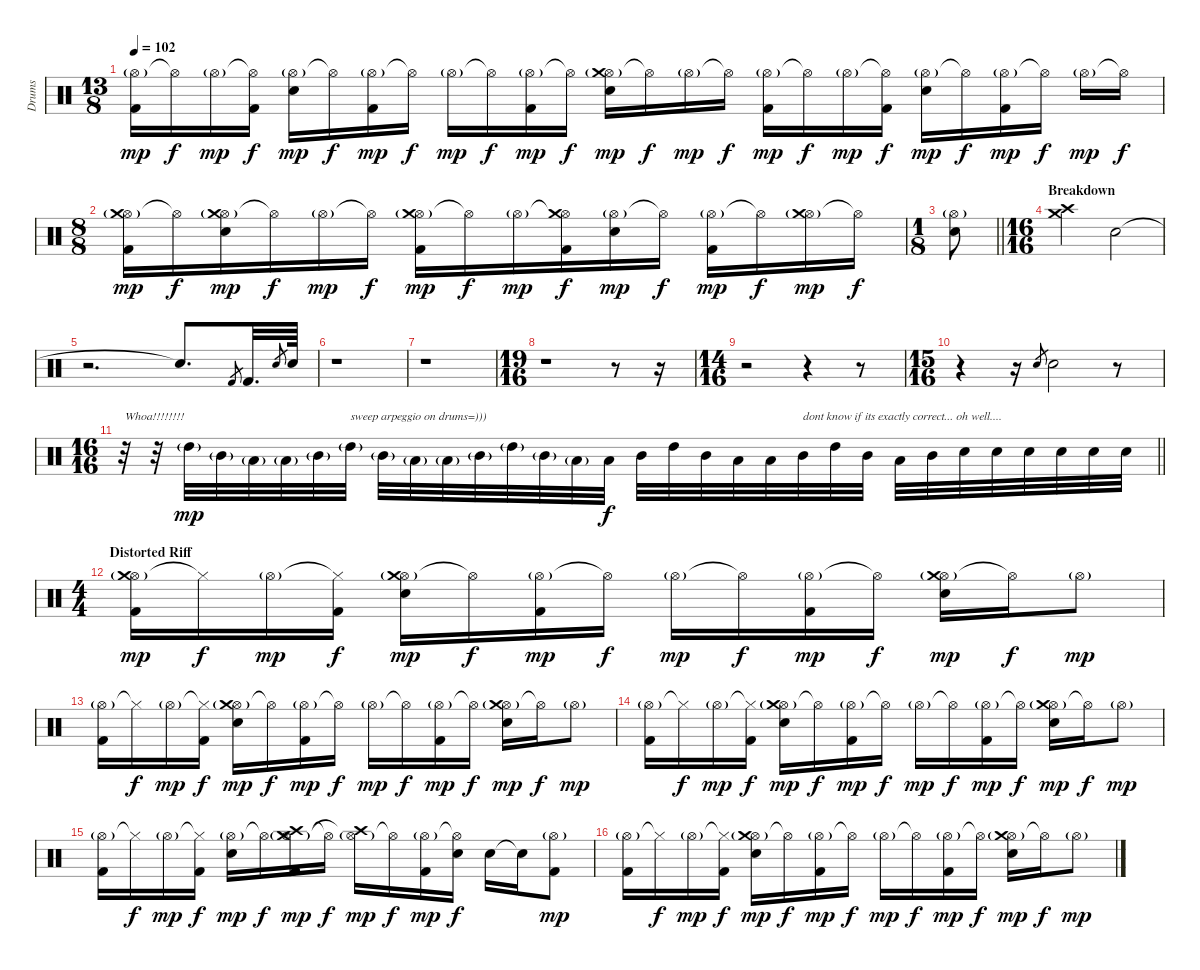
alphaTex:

\track ("Drums" "Drums") {instrument percussion}
\staff {score}
\articulation defaults
\ts (13 8)
\tempo 102
\clef neutral
\ks c
("Hi-Hat (open)"{g} "Kick (hit) 2").16{dy mp} "Hi-Hat (open)"{t}.16{dy f} "Hi-Hat (open)"{g}.16{dy mp} ("Hi-Hat (open)"{t} "Kick (hit) 2").16{dy f} ("Hi-Hat (open)"{g} "Electric Snare (hit)").16{dy mp} "Hi-Hat (open)"{t}.16{dy f} ("Hi-Hat (open)"{g} "Kick (hit) 2").16{dy mp} "Hi-Hat (open)"{t}.16{dy f} "Hi-Hat (open)"{g}.16{dy mp} "Hi-Hat (open)"{t}.16{dy f} ("Hi-Hat (open)"{g} "Kick (hit) 2").16{dy mp} "Hi-Hat (open)"{t}.16{dy f} ("Hi-Hat (open)"{g} "Crash medium (hit)" "Electric Snare (hit)").16{dy mp} "Hi-Hat (open)"{t}.16{dy f} "Hi-Hat (open)"{g}.16{dy mp} "Hi-Hat (open)"{t}.16{dy f} ("Hi-Hat (open)"{g} "Kick (hit) 2").16{dy mp} "Hi-Hat (open)"{t}.16{dy f} "Hi-Hat (open)"{g}.16{dy mp} ("Hi-Hat (open)"{t} "Kick (hit) 2").16{dy f} ("Hi-Hat (open)"{g} "Electric Snare (hit)").16{dy mp} "Hi-Hat (open)"{t}.16{dy f} ("Hi-Hat (open)"{g} "Kick (hit) 2").16{dy mp} "Hi-Hat (open)"{t}.16{dy f} "Hi-Hat (open)"{g}.16{dy mp} "Hi-Hat (open)"{t}.16{dy f} |
\ts (8 8)
("Hi-Hat (open)"{g} "Crash medium (hit)" "Kick (hit) 2").16{dy mp} "Hi-Hat (open)"{t}.16{dy f} ("Hi-Hat (open)"{g} "Electric Snare (hit)" "Crash medium (hit)").16{dy mp} "Hi-Hat (open)"{t}.16{dy f} "Hi-Hat (open)"{g}.16{dy mp} "Hi-Hat (open)"{t}.16{dy f} ("Hi-Hat (open)"{g} "Crash medium (hit)" "Kick (hit) 2").16{dy mp} "Hi-Hat (open)"{t}.16{dy f} "Hi-Hat (open)"{g}.16{dy mp} ("Hi-Hat (open)"{t} "Crash medium (hit)" "Kick (hit) 2").16{dy f} ("Hi-Hat (open)"{g} "Electric Snare (hit)").16{dy mp} "Hi-Hat (open)"{t}.16{dy f} ("Hi-Hat (open)"{g} "Kick (hit) 2").16{dy mp} "Hi-Hat (open)"{t}.16{dy f} ("Hi-Hat (open)"{g} "Crash medium (hit)").16{dy mp} "Hi-Hat (open)"{t}.16{dy f} |
\ts (1 8)
\barLineRight lightlight
("Hi-Hat (open)"{g} "Electric Snare (hit)").8 |
\ts (16 16)
\section ("" "Breakdown")
("Crash high (hit)" "Crash medium (hit)").2 "Electric Snare (hit)".2 |
r.2{d} "Snare (hit)"{t}.8{d} "Kick (hit) 2".8{gr} "Kick (hit) 2".32{d} "Electric Snare (hit)".8{gr} "Electric Snare (hit)".64 |
r.1 |
r.1 |
\ts (19 16)
r.1 r.8 r.16 |
\ts (14 16)
r.2 r.4 r.8 |
\ts (15 16)
r.4 r.16 "Electric Snare (hit)".8{gr} "Electric Snare (hit)".2 r.8 |
\ts (16 16)
\barLineRight lightlight
r.32{txt "Whoa!!!!!!!!"} r.32 "High Tom (hit)"{g}.32{dy mp} "Mid Tom (hit)"{g}.32 "Low Tom (hit)"{g}.32 "Low Tom (hit)"{g}.32 "Mid Tom (hit)"{g}.32 "High Tom (hit)"{g}.32{txt "sweep arpeggio on drums=)))"} "Mid Tom (hit)"{g}.32 "Low Tom (hit)"{g}.32 "Low Tom (hit)"{g}.32 "Mid Tom (hit)"{g}.32 "High Tom (hit)"{g}.32 "Mid Tom (hit)"{g}.32 "Low Tom (hit)"{g}.32 "Low Tom (hit)".32{dy f} "Mid Tom (hit)".32 "High Tom (hit)".32 "Mid Tom (hit)".32 "Low Tom (hit)".32 "Low Tom (hit)".32 "Mid Tom (hit)".32{txt "dont know if its exactly correct... oh well...."} "High Tom (hit)".32 "Mid Tom (hit)".32 "Low Tom (hit)".32 "Mid Tom (hit)".32 "Electric Snare (hit)".32 "Electric Snare (hit)".32 "Electric Snare (hit)".32 "Electric Snare (hit)".32 "Electric Snare (hit)".32 "Electric Snare (hit)".32 |
\ts (4 4)
\section ("" "Distorted Riff")
("Hi-Hat (open)"{g} "Crash medium (hit)" "Kick (hit) 2").16{dy mp} "Hi-Hat (closed)"{t}.16{dy f} "Hi-Hat (open)"{g}.16{dy mp} ("Hi-Hat (closed)"{t} "Kick (hit) 2").16{dy f} ("Hi-Hat (open)"{g} "Crash medium (hit)"{g} "Electric Snare (hit)").16{dy mp} "Hi-Hat (open)"{t}.16{dy f} ("Hi-Hat (open)"{g} "Kick (hit) 2").16{dy mp} "Hi-Hat (open)"{t}.16{dy f} "Hi-Hat (open)"{g}.16{dy mp} "Hi-Hat (open)"{t}.16{dy f} ("Hi-Hat (open)"{g} "Kick (hit) 2").16{dy mp} "Hi-Hat (open)"{t}.16{dy f} ("Hi-Hat (open)"{g} "Crash medium (hit)"{g} "Electric Snare (hit)").16{dy mp} "Hi-Hat (open)"{t}.16{dy f} "Hi-Hat (open)"{g}.8{dy mp} |
("Hi-Hat (open)"{g} "Kick (hit) 2").16 "Hi-Hat (closed)"{t}.16{dy f} "Hi-Hat (open)"{g}.16{dy mp} ("Hi-Hat (closed)"{t} "Kick (hit) 2").16{dy f} ("Hi-Hat (open)"{g} "Crash medium (hit)"{g} "Electric Snare (hit)").16{dy mp} "Hi-Hat (open)"{t}.16{dy f} ("Hi-Hat (open)"{g} "Kick (hit) 2").16{dy mp} "Hi-Hat (open)"{t}.16{dy f} "Hi-Hat (open)"{g}.16{dy mp} "Hi-Hat (open)"{t}.16{dy f} ("Hi-Hat (open)"{g} "Kick (hit) 2").16{dy mp} "Hi-Hat (open)"{t}.16{dy f} ("Hi-Hat (open)"{g} "Crash medium (hit)"{g} "Electric Snare (hit)").16{dy mp} "Hi-Hat (open)"{t}.16{dy f} "Hi-Hat (open)"{g}.8{dy mp} |
("Hi-Hat (open)"{g} "Kick (hit) 2").16 "Hi-Hat (closed)"{t}.16{dy f} "Hi-Hat (open)"{g}.16{dy mp} ("Hi-Hat (closed)"{t} "Kick (hit) 2").16{dy f} ("Hi-Hat (open)"{g} "Crash medium (hit)"{g} "Electric Snare (hit)").16{dy mp} "Hi-Hat (open)"{t}.16{dy f} ("Hi-Hat (open)"{g} "Kick (hit) 2").16{dy mp} "Hi-Hat (open)"{t}.16{dy f} "Hi-Hat (open)"{g}.16{dy mp} "Hi-Hat (open)"{t}.16{dy f} ("Hi-Hat (open)"{g} "Kick (hit) 2").16{dy mp} "Hi-Hat (open)"{t}.16{dy f} ("Hi-Hat (open)"{g} "Crash medium (hit)"{g} "Electric Snare (hit)").16{dy mp} "Hi-Hat (open)"{t}.16{dy f} "Hi-Hat (open)"{g}.8{dy mp} |
("Hi-Hat (open)"{g} "Kick (hit) 2").16 "Hi-Hat (closed)"{t}.16{dy f} "Hi-Hat (open)"{g}.16{dy mp} ("Hi-Hat (closed)"{t} "Kick (hit) 2").16{dy f} ("Hi-Hat (open)"{g} "Electric Snare (hit)").16{dy mp} "Hi-Hat (open)"{t}.16{dy f} ("Hi-Hat (open)"{g} "Crash medium (hit)"{g} "Crash high (hit)" "Kick (hit) 2").16{dy mp} "Hi-Hat (open)"{t}.16{dy f} ("Hi-Hat (open)"{g} "Crash high (hit)"{t}).16{dy mp} "Hi-Hat (open)"{t}.16{dy f} ("Hi-Hat (open)"{g} "Kick (hit) 2").16{dy mp} ("Hi-Hat (open)"{t} "Electric Snare (hit)").16{dy f} "Electric Snare (hit)".16 "Electric Snare (hit)"{t}.16 ("Hi-Hat (open)"{g} "Kick (hit) 2").8{dy mp} |
("Hi-Hat (open)"{g} "Kick (hit) 2").16 "Hi-Hat (closed)"{t}.16{dy f} "Hi-Hat (open)"{g}.16{dy mp} ("Hi-Hat (closed)"{t} "Kick (hit) 2").16{dy f} ("Hi-Hat (open)"{g} "Crash medium (hit)"{g} "Electric Snare (hit)").16{dy mp} "Hi-Hat (open)"{t}.16{dy f} ("Hi-Hat (open)"{g} "Kick (hit) 2").16{dy mp} "Hi-Hat (open)"{t}.16{dy f} "Hi-Hat (open)"{g}.16{dy mp} "Hi-Hat (open)"{t}.16{dy f} ("Hi-Hat (open)"{g} "Kick (hit) 2").16{dy mp} "Hi-Hat (open)"{t}.16{dy f} ("Hi-Hat (open)"{g} "Crash medium (hit)"{g} "Electric Snare (hit)").16{dy mp} "Hi-Hat (open)"{t}.16{dy f} "Hi-Hat (open)"{g}.8{dy mp}
